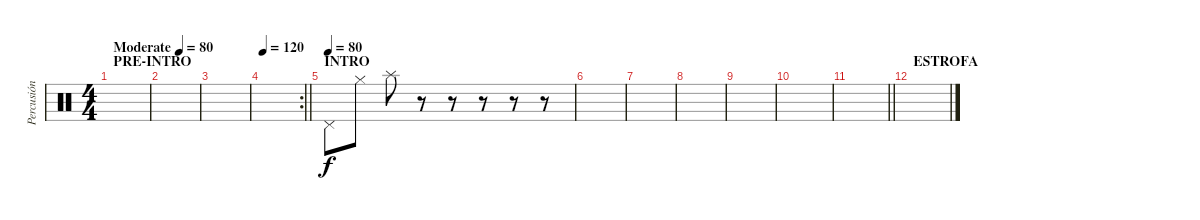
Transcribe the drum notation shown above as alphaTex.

\track ("Percusión" "Percusión") {instrument percussion}
\staff {score}
\articulation defaults
\ts (4 4)
\section ("" "PRE-INTRO")
\tempo (80 "Moderate")
\clef neutral
\ks c
|
|
|
\rc 2
\tempo 120
\barLineRight lightlight
|
\section ("" "INTRO")
\tempo (80)
"Pedal Hi-Hat (hit)".8 "Hi-Hat (closed)".8 "Splash (hit)".8 r.8 r.8 r.8 r.8 r.8 |
|
|
|
|
|
\barLineRight lightlight
|
\section ("" "ESTROFA")
